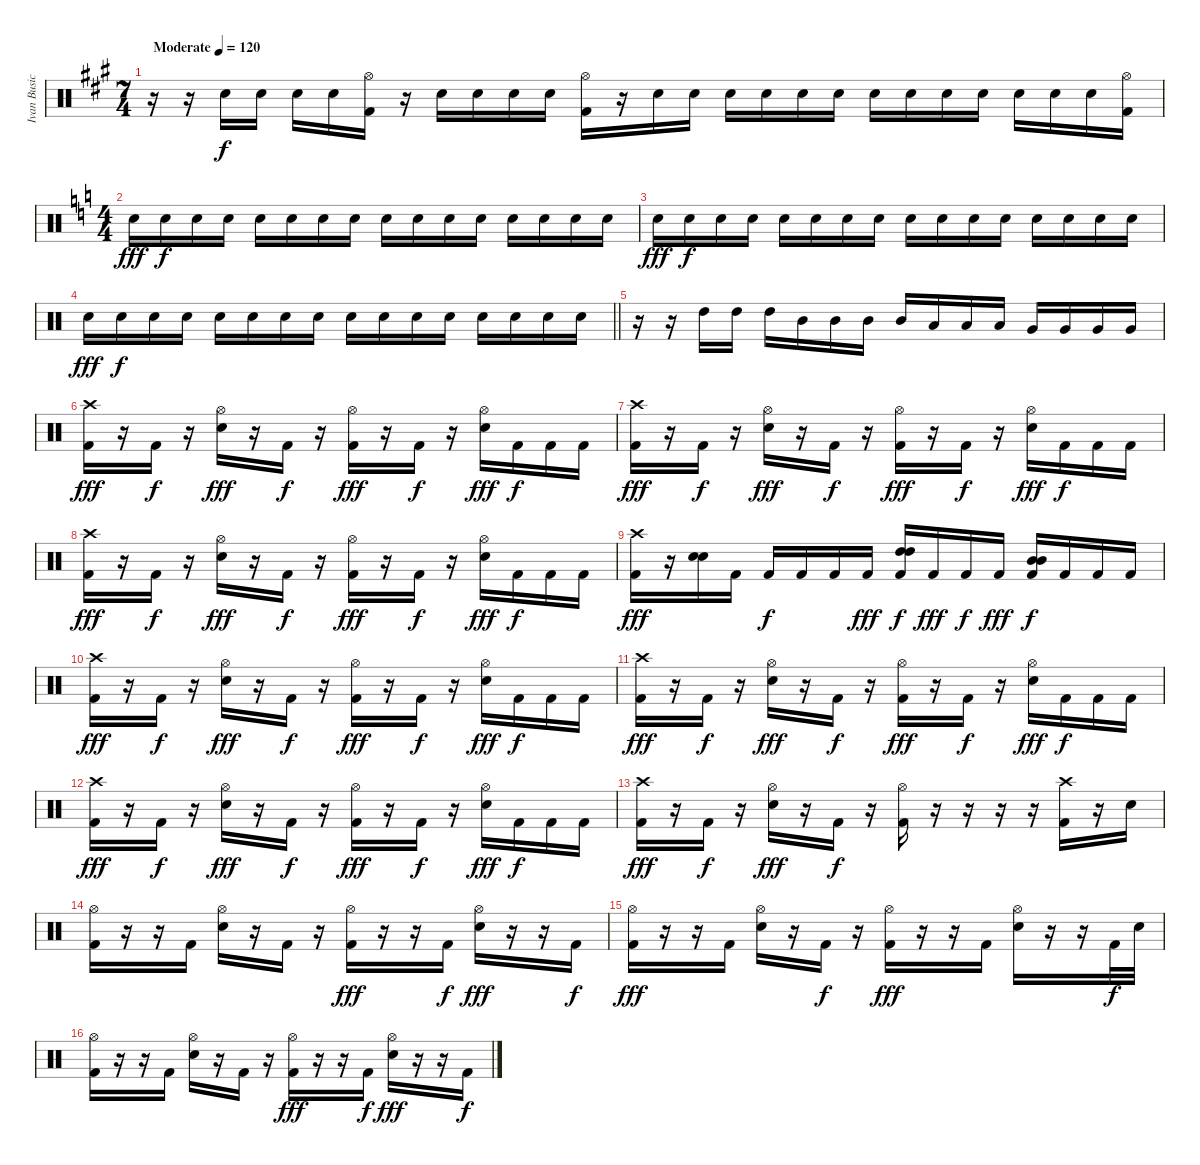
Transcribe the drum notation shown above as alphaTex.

\track ("Ivan Busic" "Ivan Busic") {instrument percussion}
\staff {score}
\articulation defaults
\ts (7 4)
\tempo (120 "Moderate")
\clef neutral
\ks a
r.16{dy f} r.16 "Electric Snare (hit)".16 "Electric Snare (hit)".16 "Electric Snare (hit)".16 "Electric Snare (hit)".16 ("Hi-Hat (open)" "Kick (hit) 2").16 r.16 "Electric Snare (hit)".16 "Electric Snare (hit)".16 "Electric Snare (hit)".16 "Electric Snare (hit)".16 ("Hi-Hat (open)" "Kick (hit) 2").16 r.16 "Electric Snare (hit)".16 "Electric Snare (hit)".16 "Electric Snare (hit)".16 "Electric Snare (hit)".16 "Electric Snare (hit)".16 "Electric Snare (hit)".16 "Electric Snare (hit)".16 "Electric Snare (hit)".16 "Electric Snare (hit)".16 "Electric Snare (hit)".16 "Electric Snare (hit)".16 "Electric Snare (hit)".16 "Electric Snare (hit)".16 ("Hi-Hat (open)" "Kick (hit) 2").16 |
\ts (4 4)
\ks c "Snare (hit)".16{dy fff} "Snare (hit)".16{dy f} "Snare (hit)".16 "Snare (hit)".16 "Snare (hit)".16 "Snare (hit)".16 "Snare (hit)".16 "Snare (hit)".16 "Snare (hit)".16 "Snare (hit)".16 "Snare (hit)".16 "Snare (hit)".16 "Snare (hit)".16 "Snare (hit)".16 "Snare (hit)".16 "Snare (hit)".16
|
"Snare (hit)".16{dy fff} "Snare (hit)".16{dy f} "Snare (hit)".16 "Snare (hit)".16 "Snare (hit)".16 "Snare (hit)".16 "Snare (hit)".16 "Snare (hit)".16 "Snare (hit)".16 "Snare (hit)".16 "Snare (hit)".16 "Snare (hit)".16 "Snare (hit)".16 "Snare (hit)".16 "Snare (hit)".16 "Snare (hit)".16 |
\barLineRight lightlight "Snare (hit)".16{dy fff} "Snare (hit)".16{dy f} "Snare (hit)".16 "Snare (hit)".16 "Snare (hit)".16 "Snare (hit)".16 "Snare (hit)".16 "Snare (hit)".16 "Snare (hit)".16 "Snare (hit)".16 "Snare (hit)".16 "Snare (hit)".16 "Snare (hit)".16 "Snare (hit)".16 "Snare (hit)".16 "Snare (hit)".16
|
r.16 r.16 "High Tom (hit)".16 "High Tom (hit)".16 "High Tom (hit)".16 "Mid Tom (hit)".16 "Mid Tom (hit)".16 "Mid Tom (hit)".16 "Mid Tom (hit)".16 "Low Tom (hit)".16 "Low Tom (hit)".16 "Low Tom (hit)".16 "Very Low Tom (hit)".16 "Very Low Tom (hit)".16 "Very Low Tom (hit)".16 "Very Low Tom (hit)".16 |
("Crash high (hit)" "Kick (hit) 2").16{dy fff} r.16 "Kick (hit) 2".16{dy f} r.16 ("Hi-Hat (open)" "Electric Snare (hit)").16{dy fff} r.16 "Kick (hit) 2".16{dy f} r.16 ("Hi-Hat (open)" "Kick (hit) 2").16{dy fff} r.16 "Kick (hit) 2".16{dy f} r.16 ("Hi-Hat (open)" "Electric Snare (hit)").16{dy fff} "Kick (hit) 2".16{dy f} "Kick (hit) 2".16 "Kick (hit) 2".16 |
("Crash high (hit)" "Kick (hit) 2").16{dy fff} r.16 "Kick (hit) 2".16{dy f} r.16 ("Hi-Hat (open)" "Electric Snare (hit)").16{dy fff} r.16 "Kick (hit) 2".16{dy f} r.16 ("Hi-Hat (open)" "Kick (hit) 2").16{dy fff} r.16 "Kick (hit) 2".16{dy f} r.16 ("Hi-Hat (open)" "Electric Snare (hit)").16{dy fff} "Kick (hit) 2".16{dy f} "Kick (hit) 2".16 "Kick (hit) 2".16 |
("Crash high (hit)" "Kick (hit) 2").16{dy fff} r.16 "Kick (hit) 2".16{dy f} r.16 ("Hi-Hat (open)" "Electric Snare (hit)").16{dy fff} r.16 "Kick (hit) 2".16{dy f} r.16 ("Hi-Hat (open)" "Kick (hit) 2").16{dy fff} r.16 "Kick (hit) 2".16{dy f} r.16 ("Hi-Hat (open)" "Electric Snare (hit)").16{dy fff} "Kick (hit) 2".16{dy f} "Kick (hit) 2".16 "Kick (hit) 2".16 |
("Crash high (hit)" "Kick (hit) 2").16{dy fff} r.16 ("Electric Snare (hit)" "Electric Snare (hit)").16 "Kick (hit) 2".16 "Kick (hit) 2".16{dy f} "Kick (hit) 2".16 "Kick (hit) 2".16 "Kick (hit) 2".16{dy fff} ("High Tom (hit)" "High Tom (hit)" "Kick (hit) 2").16{dy f} "Kick (hit) 2".16{dy fff} "Kick (hit) 2".16{dy f} "Kick (hit) 2".16{dy fff} ("Mid Tom (hit)" "Mid Tom (hit)" "Kick (hit) 2").16{dy f} "Kick (hit) 2".16 "Kick (hit) 2".16 "Kick (hit) 2".16 |
("Crash high (hit)" "Kick (hit) 2").16{dy fff} r.16 "Kick (hit) 2".16{dy f} r.16 ("Hi-Hat (open)" "Electric Snare (hit)").16{dy fff} r.16 "Kick (hit) 2".16{dy f} r.16 ("Hi-Hat (open)" "Kick (hit) 2").16{dy fff} r.16 "Kick (hit) 2".16{dy f} r.16 ("Hi-Hat (open)" "Electric Snare (hit)").16{dy fff} "Kick (hit) 2".16{dy f} "Kick (hit) 2".16 "Kick (hit) 2".16 |
("Crash high (hit)" "Kick (hit) 2").16{dy fff} r.16 "Kick (hit) 2".16{dy f} r.16 ("Hi-Hat (open)" "Electric Snare (hit)").16{dy fff} r.16 "Kick (hit) 2".16{dy f} r.16 ("Hi-Hat (open)" "Kick (hit) 2").16{dy fff} r.16 "Kick (hit) 2".16{dy f} r.16 ("Hi-Hat (open)" "Electric Snare (hit)").16{dy fff} "Kick (hit) 2".16{dy f} "Kick (hit) 2".16 "Kick (hit) 2".16 |
("Crash high (hit)" "Kick (hit) 2").16{dy fff} r.16 "Kick (hit) 2".16{dy f} r.16 ("Hi-Hat (open)" "Electric Snare (hit)").16{dy fff} r.16 "Kick (hit) 2".16{dy f} r.16 ("Hi-Hat (open)" "Kick (hit) 2").16{dy fff} r.16 "Kick (hit) 2".16{dy f} r.16 ("Hi-Hat (open)" "Electric Snare (hit)").16{dy fff} "Kick (hit) 2".16{dy f} "Kick (hit) 2".16 "Kick (hit) 2".16 |
("Crash high (hit)" "Kick (hit) 2").16{dy fff} r.16 "Kick (hit) 2".16{dy f} r.16 ("Hi-Hat (open)" "Electric Snare (hit)").16{dy fff} r.16 "Kick (hit) 2".16{dy f} r.16 ("Hi-Hat (open)" "Kick (hit) 2").16 r.16 r.16 r.16 r.16 ("Crash high (hit)" "Kick (hit) 2").16 r.16 "Snare (hit)".16 |
("Hi-Hat (open)" "Kick (hit) 2").16 r.16 r.16 "Kick (hit) 2".16 ("Hi-Hat (open)" "Electric Snare (hit)").16 r.16 "Kick (hit) 2".16 r.16 ("Hi-Hat (open)" "Kick (hit) 2").16{dy fff} r.16 r.16 "Kick (hit) 2".16{dy f} ("Hi-Hat (open)" "Electric Snare (hit)").16{dy fff} r.16 r.16 "Kick (hit) 2".16{dy f} |
("Hi-Hat (open)" "Kick (hit) 2").16{dy fff} r.16 r.16 "Kick (hit) 2".16 ("Hi-Hat (open)" "Electric Snare (hit)").16 r.16 "Kick (hit) 2".16{dy f} r.16 ("Hi-Hat (open)" "Kick (hit) 2").16{dy fff} r.16 r.16 "Kick (hit) 2".16 ("Hi-Hat (open)" "Electric Snare (hit)").16 r.16 r.16 "Kick (hit) 2".32{dy f} "Snare (hit)".32 |
("Hi-Hat (open)" "Kick (hit) 2").16 r.16 r.16 "Kick (hit) 2".16 ("Hi-Hat (open)" "Electric Snare (hit)").16 r.16 "Kick (hit) 2".16 r.16 ("Hi-Hat (open)" "Kick (hit) 2").16{dy fff} r.16 r.16 "Kick (hit) 2".16{dy f} ("Hi-Hat (open)" "Electric Snare (hit)").16{dy fff} r.16 r.16 "Kick (hit) 2".16{dy f}
